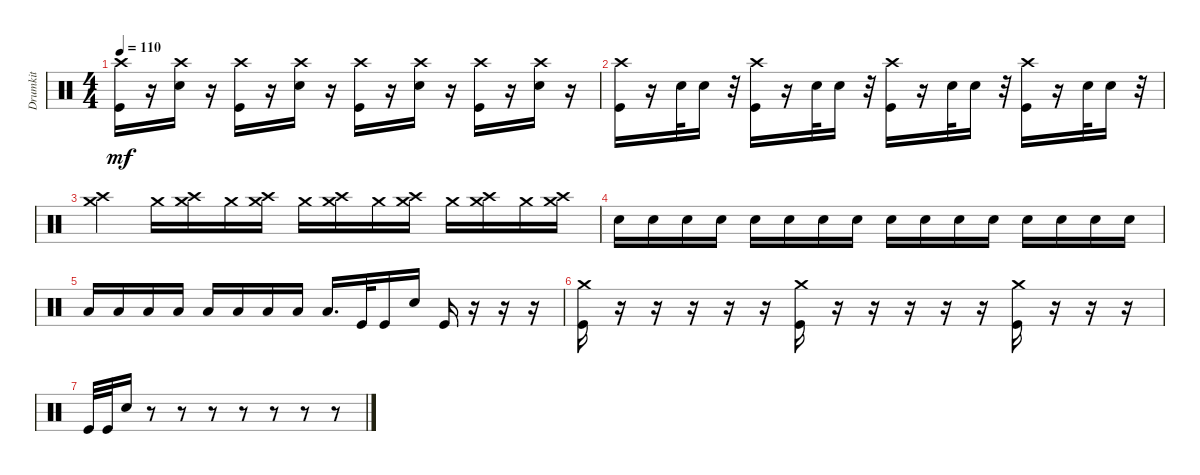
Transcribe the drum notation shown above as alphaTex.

\track ("Drumkit" "Drumkit") {instrument percussion}
\staff {score}
\articulation defaults
\ts (4 4)
\tempo 110
\clef neutral
\ks c
("Kick (hit)" "Crash high (hit)").16{dy mf} r.16 ("Crash high (hit)" "Snare (hit) 2").16 r.16 ("Crash high (hit)" "Kick (hit)").16 r.16 ("Crash high (hit)" "Snare (hit) 2").16 r.16 ("Crash high (hit)" "Kick (hit)").16 r.16 ("Crash high (hit)" "Snare (hit) 2").16 r.16 ("Crash high (hit)" "Kick (hit)").16 r.16 ("Crash high (hit)" "Snare (hit) 2").16 r.16 |
("Kick (hit)" "Crash high (hit)").16 r.16 "Snare (hit) 2".32 "Snare (hit) 2".16 r.32 ("Kick (hit)" "Crash high (hit)").16 r.16 "Snare (hit) 2".32 "Snare (hit) 2".16 r.32 ("Kick (hit)" "Crash high (hit)").16 r.16 "Snare (hit) 2".32 "Snare (hit) 2".16 r.32 ("Kick (hit)" "Crash high (hit)").16 r.16 "Snare (hit) 2".32 "Snare (hit) 2".16 r.32 |
("Crash medium (hit)" "Crash high (hit)").4 "Crash medium (hit)".16 ("Crash medium (hit)" "Crash high (hit)").16 "Crash medium (hit)".16 ("Crash medium (hit)" "Crash high (hit)").16 "Crash medium (hit)".16 ("Crash medium (hit)" "Crash high (hit)").16 "Crash medium (hit)".16 ("Crash medium (hit)" "Crash high (hit)").16 "Crash medium (hit)".16 ("Crash medium (hit)" "Crash high (hit)").16 "Crash medium (hit)".16 ("Crash medium (hit)" "Crash high (hit)").16 |
"Snare (hit) 2".16 "Snare (hit) 2".16 "Snare (hit) 2".16 "Snare (hit) 2".16 "Snare (hit) 2".16 "Snare (hit) 2".16 "Snare (hit) 2".16 "Snare (hit) 2".16 "Snare (hit) 2".16 "Snare (hit) 2".16 "Snare (hit) 2".16 "Snare (hit) 2".16 "Snare (hit) 2".16 "Snare (hit) 2".16 "Snare (hit) 2".16 "Snare (hit) 2".16 |
"Low Floor Tom (hit)".16 "Low Floor Tom (hit)".16 "Low Floor Tom (hit)".16 "Low Floor Tom (hit)".16 "Low Floor Tom (hit)".16 "Low Floor Tom (hit)".16 "Low Floor Tom (hit)".16 "Low Floor Tom (hit)".16 "Low Floor Tom (hit)".16{d} "Kick (hit)".32 "Kick (hit)".16 "Snare (hit) 2".16 "Kick (hit)".16 r.16 r.16 r.16 |
("Kick (hit)" "Crash medium (hit)").16 r.16 r.16 r.16 r.16 r.16 ("Kick (hit)" "Crash medium (hit)").16 r.16 r.16 r.16 r.16 r.16 ("Kick (hit)" "Crash medium (hit)").16 r.16 r.16 r.16 |
"Kick (hit)".32 "Kick (hit)".32 "Snare (hit) 2".16 r.8 r.8 r.8 r.8 r.8 r.8 r.8
